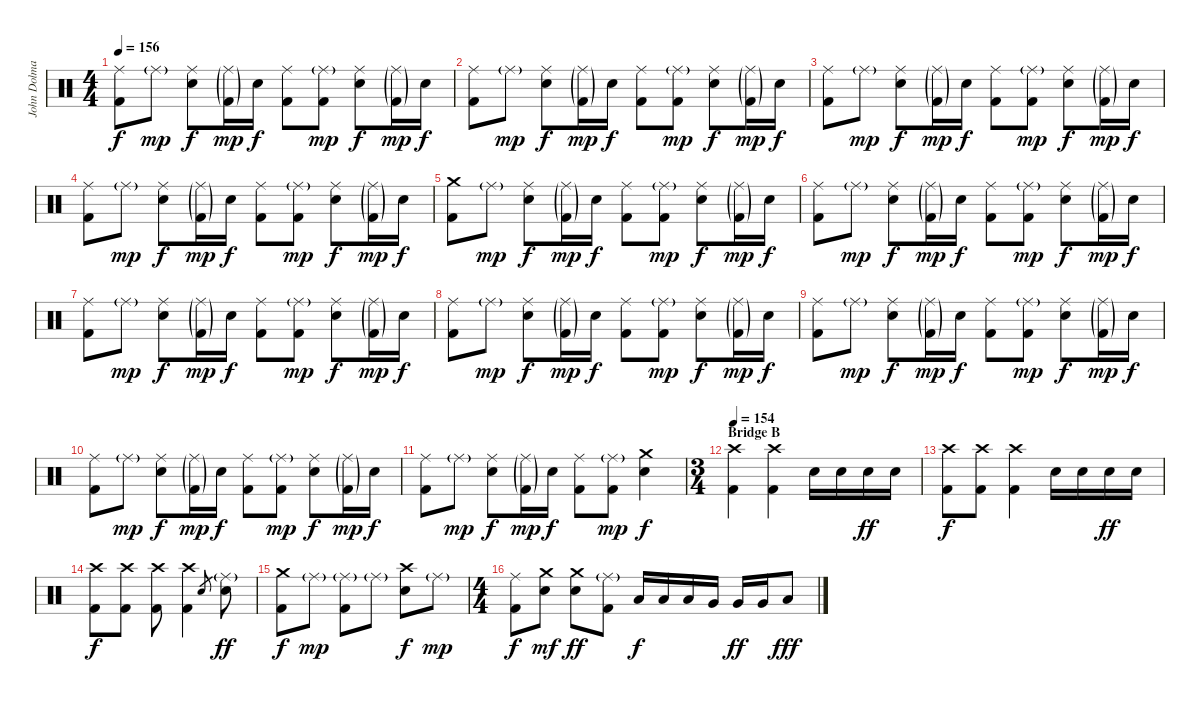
\track ("John Dolmayan" "John Dolma") {instrument percussion}
\staff {score}
\articulation defaults
\ts (4 4)
\tempo 156
\clef neutral
\ks c
("Ride (middle)" "Kick (hit) 2").8{dy f} "Ride (middle)"{g}.8{dy mp} ("Ride (middle)" "Electric Snare (hit)").8{dy f} ("Ride (middle)"{g} "Kick (hit) 2"{g}).16{dy mp} "Electric Snare (hit)".16{dy f} ("Ride (middle)" "Kick (hit) 2").8 ("Ride (middle)"{g} "Kick (hit) 2").8{dy mp} ("Ride (middle)" "Electric Snare (hit)").8{dy f} ("Ride (middle)"{g} "Kick (hit) 2"{g}).16{dy mp} "Electric Snare (hit)".16{dy f} |
("Ride (middle)" "Kick (hit) 2").8 "Ride (middle)"{g}.8{dy mp} ("Ride (middle)" "Electric Snare (hit)").8{dy f} ("Ride (middle)"{g} "Kick (hit) 2"{g}).16{dy mp} "Electric Snare (hit)".16{dy f} ("Ride (middle)" "Kick (hit) 2").8 ("Ride (middle)"{g} "Kick (hit) 2").8{dy mp} ("Ride (middle)" "Electric Snare (hit)").8{dy f} ("Ride (middle)"{g} "Kick (hit) 2"{g}).16{dy mp} "Electric Snare (hit)".16{dy f} |
("Ride (middle)" "Kick (hit) 2").8 "Ride (middle)"{g}.8{dy mp} ("Ride (middle)" "Electric Snare (hit)").8{dy f} ("Ride (middle)"{g} "Kick (hit) 2"{g}).16{dy mp} "Electric Snare (hit)".16{dy f} ("Ride (middle)" "Kick (hit) 2").8 ("Ride (middle)"{g} "Kick (hit) 2").8{dy mp} ("Ride (middle)" "Electric Snare (hit)").8{dy f} ("Ride (middle)"{g} "Kick (hit) 2"{g}).16{dy mp} "Electric Snare (hit)".16{dy f} |
("Ride (middle)" "Kick (hit) 2").8 "Ride (middle)"{g}.8{dy mp} ("Ride (middle)" "Electric Snare (hit)").8{dy f} ("Ride (middle)"{g} "Kick (hit) 2"{g}).16{dy mp} "Electric Snare (hit)".16{dy f} ("Ride (middle)" "Kick (hit) 2").8 ("Ride (middle)"{g} "Kick (hit) 2").8{dy mp} ("Ride (middle)" "Electric Snare (hit)").8{dy f} ("Ride (middle)"{g} "Kick (hit) 2"{g}).16{dy mp} "Electric Snare (hit)".16{dy f} |
("Crash medium (hit)" "Kick (hit) 2").8 "Ride (middle)"{g}.8{dy mp} ("Ride (middle)" "Electric Snare (hit)").8{dy f} ("Ride (middle)"{g} "Kick (hit) 2"{g}).16{dy mp} "Electric Snare (hit)".16{dy f} ("Ride (middle)" "Kick (hit) 2").8 ("Ride (middle)"{g} "Kick (hit) 2").8{dy mp} ("Ride (middle)" "Electric Snare (hit)").8{dy f} ("Ride (middle)"{g} "Kick (hit) 2"{g}).16{dy mp} "Electric Snare (hit)".16{dy f} |
("Ride (middle)" "Kick (hit) 2").8 "Ride (middle)"{g}.8{dy mp} ("Ride (middle)" "Electric Snare (hit)").8{dy f} ("Ride (middle)"{g} "Kick (hit) 2"{g}).16{dy mp} "Electric Snare (hit)".16{dy f} ("Ride (middle)" "Kick (hit) 2").8 ("Ride (middle)"{g} "Kick (hit) 2").8{dy mp} ("Ride (middle)" "Electric Snare (hit)").8{dy f} ("Ride (middle)"{g} "Kick (hit) 2"{g}).16{dy mp} "Electric Snare (hit)".16{dy f} |
("Ride (middle)" "Kick (hit) 2").8 "Ride (middle)"{g}.8{dy mp} ("Ride (middle)" "Electric Snare (hit)").8{dy f} ("Ride (middle)"{g} "Kick (hit) 2"{g}).16{dy mp} "Electric Snare (hit)".16{dy f} ("Ride (middle)" "Kick (hit) 2").8 ("Ride (middle)"{g} "Kick (hit) 2").8{dy mp} ("Ride (middle)" "Electric Snare (hit)").8{dy f} ("Ride (middle)"{g} "Kick (hit) 2"{g}).16{dy mp} "Electric Snare (hit)".16{dy f} |
("Ride (middle)" "Kick (hit) 2").8 "Ride (middle)"{g}.8{dy mp} ("Ride (middle)" "Electric Snare (hit)").8{dy f} ("Ride (middle)"{g} "Kick (hit) 2"{g}).16{dy mp} "Electric Snare (hit)".16{dy f} ("Ride (middle)" "Kick (hit) 2").8 ("Ride (middle)"{g} "Kick (hit) 2").8{dy mp} ("Ride (middle)" "Electric Snare (hit)").8{dy f} ("Ride (middle)"{g} "Kick (hit) 2"{g}).16{dy mp} "Electric Snare (hit)".16{dy f} |
("Ride (middle)" "Kick (hit) 2").8 "Ride (middle)"{g}.8{dy mp} ("Ride (middle)" "Electric Snare (hit)").8{dy f} ("Ride (middle)"{g} "Kick (hit) 2"{g}).16{dy mp} "Electric Snare (hit)".16{dy f} ("Ride (middle)" "Kick (hit) 2").8 ("Ride (middle)"{g} "Kick (hit) 2").8{dy mp} ("Ride (middle)" "Electric Snare (hit)").8{dy f} ("Ride (middle)"{g} "Kick (hit) 2"{g}).16{dy mp} "Electric Snare (hit)".16{dy f} |
("Ride (middle)" "Kick (hit) 2").8 "Ride (middle)"{g}.8{dy mp} ("Ride (middle)" "Electric Snare (hit)").8{dy f} ("Ride (middle)"{g} "Kick (hit) 2"{g}).16{dy mp} "Electric Snare (hit)".16{dy f} ("Ride (middle)" "Kick (hit) 2").8 ("Ride (middle)"{g} "Kick (hit) 2").8{dy mp} ("Ride (middle)" "Electric Snare (hit)").8{dy f} ("Ride (middle)"{g} "Kick (hit) 2"{g}).16{dy mp} "Electric Snare (hit)".16{dy f} |
("Ride (middle)" "Kick (hit) 2").8 "Ride (middle)"{g}.8{dy mp} ("Ride (middle)" "Electric Snare (hit)").8{dy f} ("Ride (middle)"{g} "Kick (hit) 2"{g}).16{dy mp} "Electric Snare (hit)".16{dy f} ("Ride (middle)" "Kick (hit) 2").8 ("Ride (middle)"{g} "Kick (hit) 2").8{dy mp} ("Crash medium (hit)" "Electric Snare (hit)").4{dy f} |
\ts (3 4)
\section ("" "Bridge B")
\tempo 154
("Crash high (hit)" "Kick (hit) 2").4 ("Crash high (hit)" "Kick (hit) 2").4 "Electric Snare (hit)".16 "Electric Snare (hit)".16 "Electric Snare (hit)".16{dy ff} "Electric Snare (hit)".16 |
("Crash high (hit)" "Kick (hit) 2").8{dy f} ("Crash high (hit)" "Kick (hit) 2").8 ("Crash high (hit)" "Kick (hit) 2").4 "Electric Snare (hit)".16 "Electric Snare (hit)".16 "Electric Snare (hit)".16{dy ff} "Electric Snare (hit)".16 |
("Crash high (hit)" "Kick (hit) 2").8{dy f} ("Crash high (hit)" "Kick (hit) 2").8 ("Crash high (hit)" "Kick (hit) 2").8 ("Crash high (hit)" "Kick (hit) 2").4 "Electric Snare (hit)".8{gr} ("Ride (middle)"{g} "Electric Snare (hit)").8{dy ff} |
("Crash medium (hit)" "Kick (hit) 2").8{dy f} "Ride (middle)"{g}.8{dy mp} ("Ride (middle)"{g} "Kick (hit) 2").8 "Ride (middle)"{g}.8 ("Crash high (hit)" "Electric Snare (hit)").8{dy f} "Ride (middle)"{g}.8{dy mp} |
\ts (4 4)
("Ride (middle)" "Kick (hit) 2").8{dy f} ("Crash medium (hit)" "Electric Snare (hit)").8{dy mf} ("Crash medium (hit)" "Electric Snare (hit)").8{dy ff} ("Ride (middle)"{g} "Kick (hit) 2").8 "Low Tom (hit)".16{dy f} "Low Tom (hit)".16 "Low Tom (hit)".16 "Very Low Tom (hit)".16 "Very Low Tom (hit)".16{dy ff} "Very Low Tom (hit)".16 "Low Floor Tom (hit)".8{dy fff}
